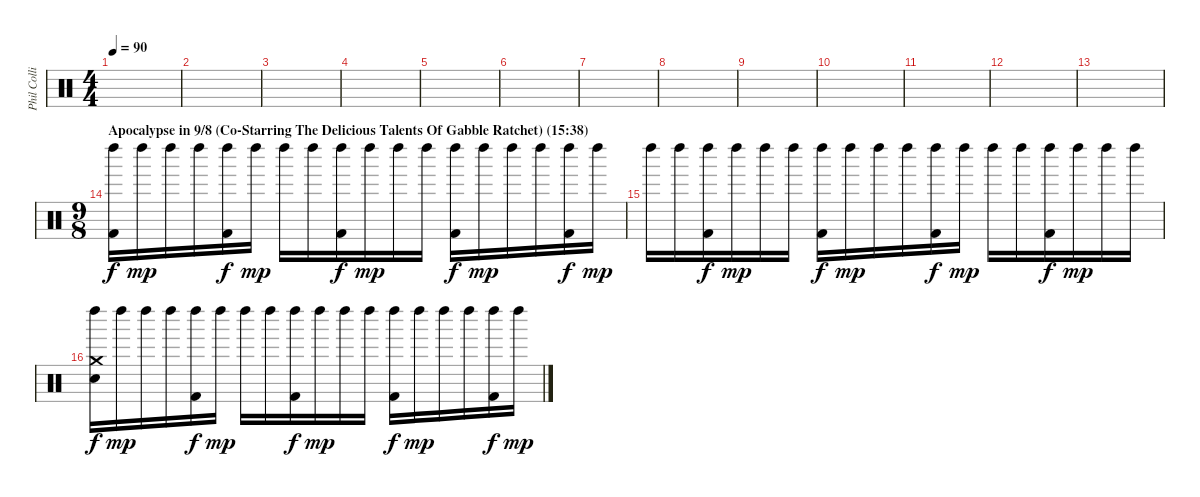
\track ("Phil Collins (drums)" "Phil Colli") {instrument percussion}
\staff {score}
\articulation defaults
\ts (4 4)
\tempo 90
\clef neutral
\ks c
|
|
|
|
|
|
|
|
|
|
|
|
|
\ts (9 8)
\section ("" "Apocalypse in 9/8 (Co-Starring The Delicious Talents Of Gabble Ratchet) (15:38)")
("Left Maraca (hit)" "Kick (hit) 2").16 "Left Maraca (hit)".16{dy mp} "Left Maraca (hit)".16 "Left Maraca (hit)".16 ("Left Maraca (hit)" "Kick (hit) 2").16{dy f} "Left Maraca (hit)".16{dy mp} "Left Maraca (hit)".16 "Left Maraca (hit)".16 ("Left Maraca (hit)" "Kick (hit) 2").16{dy f} "Left Maraca (hit)".16{dy mp} "Left Maraca (hit)".16 "Left Maraca (hit)".16 ("Left Maraca (hit)" "Kick (hit) 2").16{dy f} "Left Maraca (hit)".16{dy mp} "Left Maraca (hit)".16 "Left Maraca (hit)".16 ("Left Maraca (hit)" "Kick (hit) 2").16{dy f} "Left Maraca (hit)".16{dy mp} |
"Left Maraca (hit)".16 "Left Maraca (hit)".16 ("Left Maraca (hit)" "Kick (hit) 2").16{dy f} "Left Maraca (hit)".16{dy mp} "Left Maraca (hit)".16 "Left Maraca (hit)".16 ("Left Maraca (hit)" "Kick (hit) 2").16{dy f} "Left Maraca (hit)".16{dy mp} "Left Maraca (hit)".16 "Left Maraca (hit)".16 ("Left Maraca (hit)" "Kick (hit) 2").16{dy f} "Left Maraca (hit)".16{dy mp} "Left Maraca (hit)".16 "Left Maraca (hit)".16 ("Left Maraca (hit)" "Kick (hit) 2").16{dy f} "Left Maraca (hit)".16{dy mp} "Left Maraca (hit)".16 "Left Maraca (hit)".16 |
("Crash medium (hit)" "Left Maraca (hit)" "Electric Snare (hit)").16{dy f} "Left Maraca (hit)".16{dy mp} "Left Maraca (hit)".16 "Left Maraca (hit)".16 ("Left Maraca (hit)" "Kick (hit) 2").16{dy f} "Left Maraca (hit)".16{dy mp} "Left Maraca (hit)".16 "Left Maraca (hit)".16 ("Left Maraca (hit)" "Kick (hit) 2").16{dy f} "Left Maraca (hit)".16{dy mp} "Left Maraca (hit)".16 "Left Maraca (hit)".16 ("Left Maraca (hit)" "Kick (hit) 2").16{dy f} "Left Maraca (hit)".16{dy mp} "Left Maraca (hit)".16 "Left Maraca (hit)".16 ("Left Maraca (hit)" "Kick (hit) 2").16{dy f} "Left Maraca (hit)".16{dy mp}
